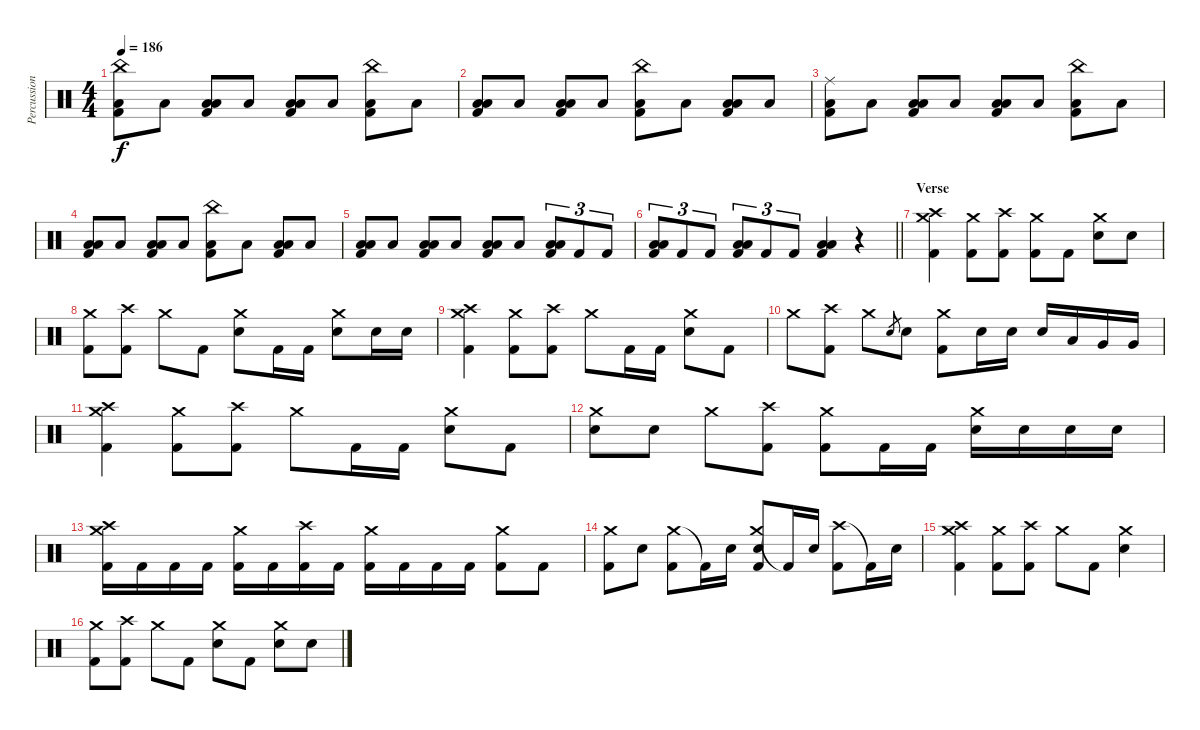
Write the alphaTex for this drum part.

\track ("Percussion" "Percussion") {instrument percussion}
\staff {score}
\articulation defaults
\ts (4 4)
\tempo 186
\clef neutral
\ks c
("China (hit)" "Low Floor Tom (hit)" "Kick (hit) 2").8{dy f} "Low Floor Tom (hit)".8 ("Low Tom (hit)" "Low Floor Tom (hit)" "Kick (hit) 2").8 "Low Floor Tom (hit)".8 ("Low Tom (hit)" "Low Floor Tom (hit)" "Kick (hit) 2").8 "Low Floor Tom (hit)".8 ("China (hit)" "Low Floor Tom (hit)" "Kick (hit) 2").8 "Low Floor Tom (hit)".8 |
("Low Tom (hit)" "Low Floor Tom (hit)" "Kick (hit) 2").8 "Low Floor Tom (hit)".8 ("Low Tom (hit)" "Low Floor Tom (hit)" "Kick (hit) 2").8 "Low Floor Tom (hit)".8 ("China (hit)" "Low Floor Tom (hit)" "Kick (hit) 2").8 "Low Floor Tom (hit)".8 ("Low Tom (hit)" "Low Floor Tom (hit)" "Kick (hit) 2").8 "Low Floor Tom (hit)".8 |
("Ride (middle)" "Low Floor Tom (hit)" "Kick (hit) 2").8 "Low Floor Tom (hit)".8 ("Low Tom (hit)" "Low Floor Tom (hit)" "Kick (hit) 2").8 "Low Floor Tom (hit)".8 ("Low Tom (hit)" "Low Floor Tom (hit)" "Kick (hit) 2").8 "Low Floor Tom (hit)".8 ("China (hit)" "Low Floor Tom (hit)" "Kick (hit) 2").8 "Low Floor Tom (hit)".8 |
("Low Tom (hit)" "Low Floor Tom (hit)" "Kick (hit) 2").8 "Low Floor Tom (hit)".8 ("Low Tom (hit)" "Low Floor Tom (hit)" "Kick (hit) 2").8 "Low Floor Tom (hit)".8 ("China (hit)" "Low Floor Tom (hit)" "Kick (hit) 2").8 "Low Floor Tom (hit)".8 ("Low Tom (hit)" "Low Floor Tom (hit)" "Kick (hit) 2").8 "Low Floor Tom (hit)".8 |
("Low Tom (hit)" "Low Floor Tom (hit)" "Kick (hit) 2").8 "Low Floor Tom (hit)".8 ("Low Tom (hit)" "Low Floor Tom (hit)" "Kick (hit) 2").8 "Low Floor Tom (hit)".8 ("Low Tom (hit)" "Low Floor Tom (hit)" "Kick (hit) 2").8 "Low Floor Tom (hit)".8 ("Low Tom (hit)" "Low Floor Tom (hit)" "Kick (hit) 2").8{tu (3 2)} "Kick (hit) 2".8{tu (3 2)} "Kick (hit) 2".8{tu (3 2)} |
\barLineRight lightlight
("Low Tom (hit)" "Low Floor Tom (hit)" "Kick (hit) 2").8{tu (3 2)} "Kick (hit) 2".8{tu (3 2)} "Kick (hit) 2".8{tu (3 2)} ("Low Tom (hit)" "Low Floor Tom (hit)" "Kick (hit) 2").8{tu (3 2)} "Kick (hit) 2".8{tu (3 2)} "Kick (hit) 2".8{tu (3 2)} ("Low Tom (hit)" "Low Floor Tom (hit)" "Kick (hit) 2").4 r.4 |
\section ("" "Verse")
("Crash medium (hit)" "Crash high (hit)" "Kick (hit) 2").4{volume 14} ("Crash medium (hit)" "Kick (hit) 2").8 ("Crash high (hit)" "Kick (hit) 2").8 ("Crash medium (hit)" "Kick (hit) 2").8 "Kick (hit) 2".8 ("Crash medium (hit)" "Electric Snare (hit)").8 "Electric Snare (hit)".8 |
("Crash medium (hit)" "Kick (hit) 2").8 ("Crash high (hit)" "Kick (hit) 2").8 "Crash medium (hit)".8 "Kick (hit) 2".8 ("Crash medium (hit)" "Electric Snare (hit)").8 "Kick (hit) 2".16 "Kick (hit) 2".16 ("Crash medium (hit)" "Electric Snare (hit)").8 "Electric Snare (hit)".16 "Electric Snare (hit)".16 |
("Crash medium (hit)" "Crash high (hit)" "Kick (hit) 2").4 ("Crash medium (hit)" "Kick (hit) 2").8 ("Crash high (hit)" "Kick (hit) 2").8 "Crash medium (hit)".8 "Kick (hit) 2".16 "Kick (hit) 2".16 ("Crash medium (hit)" "Electric Snare (hit)").8 "Kick (hit) 2".8 |
"Crash medium (hit)".8 ("Crash high (hit)" "Kick (hit) 2").8 "Crash medium (hit)".8 "Electric Snare (hit)".8{gr} "Electric Snare (hit)".8 ("Crash medium (hit)" "Kick (hit) 2").8 "Electric Snare (hit)".16 "Electric Snare (hit)".16 "Electric Snare (hit)".16 "Low Tom (hit)".16 "Very Low Tom (hit)".16 "Very Low Tom (hit)".16 |
("Crash medium (hit)" "Crash high (hit)" "Kick (hit) 2").4 ("Crash medium (hit)" "Kick (hit) 2").8 ("Crash high (hit)" "Kick (hit) 2").8 "Crash medium (hit)".8 "Kick (hit) 2".16 "Kick (hit) 2".16 ("Crash medium (hit)" "Electric Snare (hit)").8 "Kick (hit) 2".8 |
("Crash medium (hit)" "Electric Snare (hit)").8 "Electric Snare (hit)".8 "Crash medium (hit)".8 ("Crash high (hit)" "Kick (hit) 2").8 ("Crash medium (hit)" "Kick (hit) 2").8 "Kick (hit) 2".16 "Kick (hit) 2".16 ("Crash medium (hit)" "Electric Snare (hit)").16 "Electric Snare (hit)".16 "Electric Snare (hit)".16 "Electric Snare (hit)".16 |
("Crash medium (hit)" "Crash high (hit)" "Kick (hit) 2").16 "Kick (hit) 2".16 "Kick (hit) 2".16 "Kick (hit) 2".16 ("Crash medium (hit)" "Kick (hit) 2").16 "Kick (hit) 2".16 ("Crash high (hit)" "Kick (hit) 2").16 "Kick (hit) 2".16 ("Crash medium (hit)" "Kick (hit) 2").16 "Kick (hit) 2".16 "Kick (hit) 2".16 "Kick (hit) 2".16 ("Crash medium (hit)" "Kick (hit) 2").8 "Kick (hit) 2".8 |
("Crash medium (hit)" "Kick (hit) 2").8 "Electric Snare (hit)".8 ("Crash medium (hit)" "Kick (hit) 2").8 "Kick (hit) 2"{t}.16 "Electric Snare (hit)".16 ("Crash medium (hit)" "Electric Snare (hit)" "Kick (hit) 2").8 "Kick (hit) 2"{t}.16 "Electric Snare (hit)".16 ("Crash high (hit)" "Kick (hit) 2").8 "Kick (hit) 2"{t}.16 "Electric Snare (hit)".16 |
("Crash medium (hit)" "Crash high (hit)" "Kick (hit) 2").4 ("Crash medium (hit)" "Kick (hit) 2").8 ("Crash high (hit)" "Kick (hit) 2").8 "Crash medium (hit)".8 "Kick (hit) 2".8 ("Crash medium (hit)" "Electric Snare (hit)").4 |
("Crash medium (hit)" "Kick (hit) 2").8 ("Crash high (hit)" "Kick (hit) 2").8 "Crash medium (hit)".8 "Kick (hit) 2".8 ("Crash medium (hit)" "Electric Snare (hit)").8 "Kick (hit) 2".8 ("Crash medium (hit)" "Electric Snare (hit)").8 "Electric Snare (hit)".8
